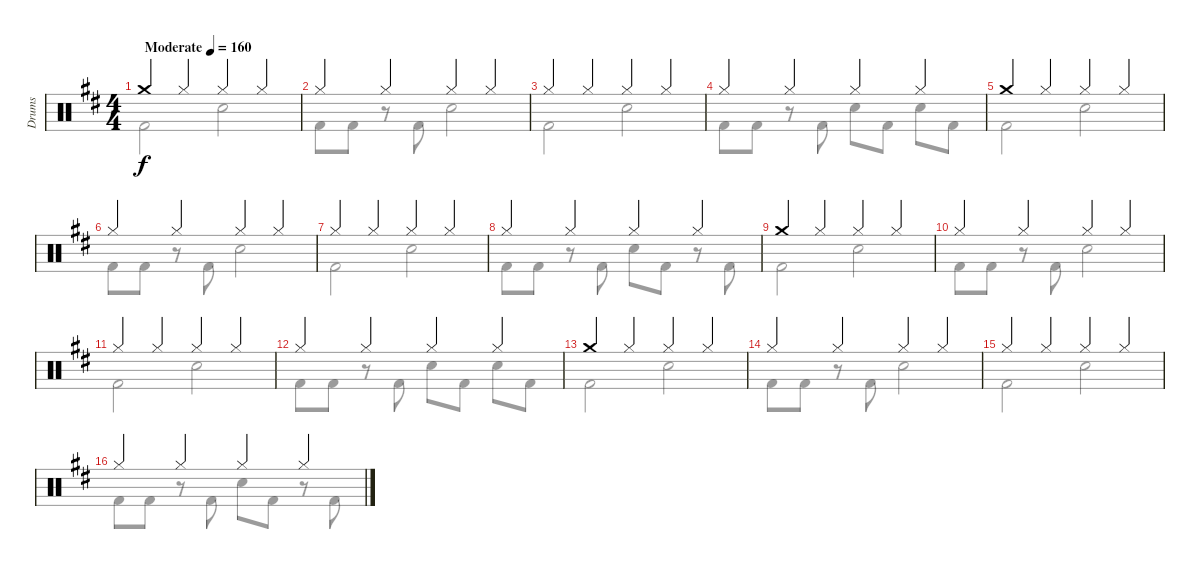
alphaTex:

\track ("Drums" "Drums") {instrument percussion}
\staff {score}
\articulation defaults
\voice
\ts (4 4)
\tempo (160 "Moderate")
\clef neutral
\ks d "Crash medium (hit)".4{dy f} "Hi-Hat (closed)".4 "Hi-Hat (closed)".4 "Hi-Hat (closed)".4
|
"Hi-Hat (closed)".4 "Hi-Hat (closed)".4 "Hi-Hat (closed)".4 "Hi-Hat (closed)".4 |
"Hi-Hat (closed)".4 "Hi-Hat (closed)".4 "Hi-Hat (closed)".4 "Hi-Hat (closed)".4 |
"Hi-Hat (closed)".4 "Hi-Hat (closed)".4 "Hi-Hat (closed)".4 "Hi-Hat (closed)".4 |
"Crash medium (hit)".4 "Hi-Hat (closed)".4 "Hi-Hat (closed)".4 "Hi-Hat (closed)".4 |
"Hi-Hat (closed)".4 "Hi-Hat (closed)".4 "Hi-Hat (closed)".4 "Hi-Hat (closed)".4 |
"Hi-Hat (closed)".4 "Hi-Hat (closed)".4 "Hi-Hat (closed)".4 "Hi-Hat (closed)".4 |
"Hi-Hat (closed)".4 "Hi-Hat (closed)".4 "Hi-Hat (closed)".4 "Hi-Hat (closed)".4 |
"Crash medium (hit)".4 "Hi-Hat (closed)".4 "Hi-Hat (closed)".4 "Hi-Hat (closed)".4 |
"Hi-Hat (closed)".4 "Hi-Hat (closed)".4 "Hi-Hat (closed)".4 "Hi-Hat (closed)".4 |
"Hi-Hat (closed)".4 "Hi-Hat (closed)".4 "Hi-Hat (closed)".4 "Hi-Hat (closed)".4 |
"Hi-Hat (closed)".4 "Hi-Hat (closed)".4 "Hi-Hat (closed)".4 "Hi-Hat (closed)".4 |
"Crash medium (hit)".4 "Hi-Hat (closed)".4 "Hi-Hat (closed)".4 "Hi-Hat (closed)".4 |
"Hi-Hat (closed)".4 "Hi-Hat (closed)".4 "Hi-Hat (closed)".4 "Hi-Hat (closed)".4 |
"Hi-Hat (closed)".4 "Hi-Hat (closed)".4 "Hi-Hat (closed)".4 "Hi-Hat (closed)".4 |
"Hi-Hat (closed)".4 "Hi-Hat (closed)".4 "Hi-Hat (closed)".4 "Hi-Hat (closed)".4
\voice
\clef neutral
\ottava regular
\simile none
\ks d "Kick (hit) 2".2{dy f} "Snare (hit) 2".2
|
"Kick (hit) 2".8 "Kick (hit) 2".8 r.8 "Kick (hit) 2".8 "Snare (hit) 2".2 |
"Kick (hit) 2".2 "Snare (hit) 2".2 |
"Kick (hit) 2".8 "Kick (hit) 2".8 r.8 "Kick (hit) 2".8 "Snare (hit) 2".8 "Kick (hit) 2".8 "Snare (hit) 2".8 "Kick (hit) 2".8 |
"Kick (hit) 2".2 "Snare (hit) 2".2 |
"Kick (hit) 2".8 "Kick (hit) 2".8 r.8 "Kick (hit) 2".8 "Snare (hit) 2".2 |
"Kick (hit) 2".2 "Snare (hit) 2".2 |
"Kick (hit) 2".8 "Kick (hit) 2".8 r.8 "Kick (hit) 2".8 "Snare (hit) 2".8 "Kick (hit) 2".8 r.8 "Kick (hit) 2".8 |
"Kick (hit) 2".2 "Snare (hit) 2".2 |
"Kick (hit) 2".8 "Kick (hit) 2".8 r.8 "Kick (hit) 2".8 "Snare (hit) 2".2 |
"Kick (hit) 2".2 "Snare (hit) 2".2 |
"Kick (hit) 2".8 "Kick (hit) 2".8 r.8 "Kick (hit) 2".8 "Snare (hit) 2".8 "Kick (hit) 2".8 "Snare (hit) 2".8 "Kick (hit) 2".8 |
"Kick (hit) 2".2 "Snare (hit) 2".2 |
"Kick (hit) 2".8 "Kick (hit) 2".8 r.8 "Kick (hit) 2".8 "Snare (hit) 2".2 |
"Kick (hit) 2".2 "Snare (hit) 2".2 |
"Kick (hit) 2".8 "Kick (hit) 2".8 r.8 "Kick (hit) 2".8 "Snare (hit) 2".8 "Kick (hit) 2".8 r.8 "Kick (hit) 2".8
